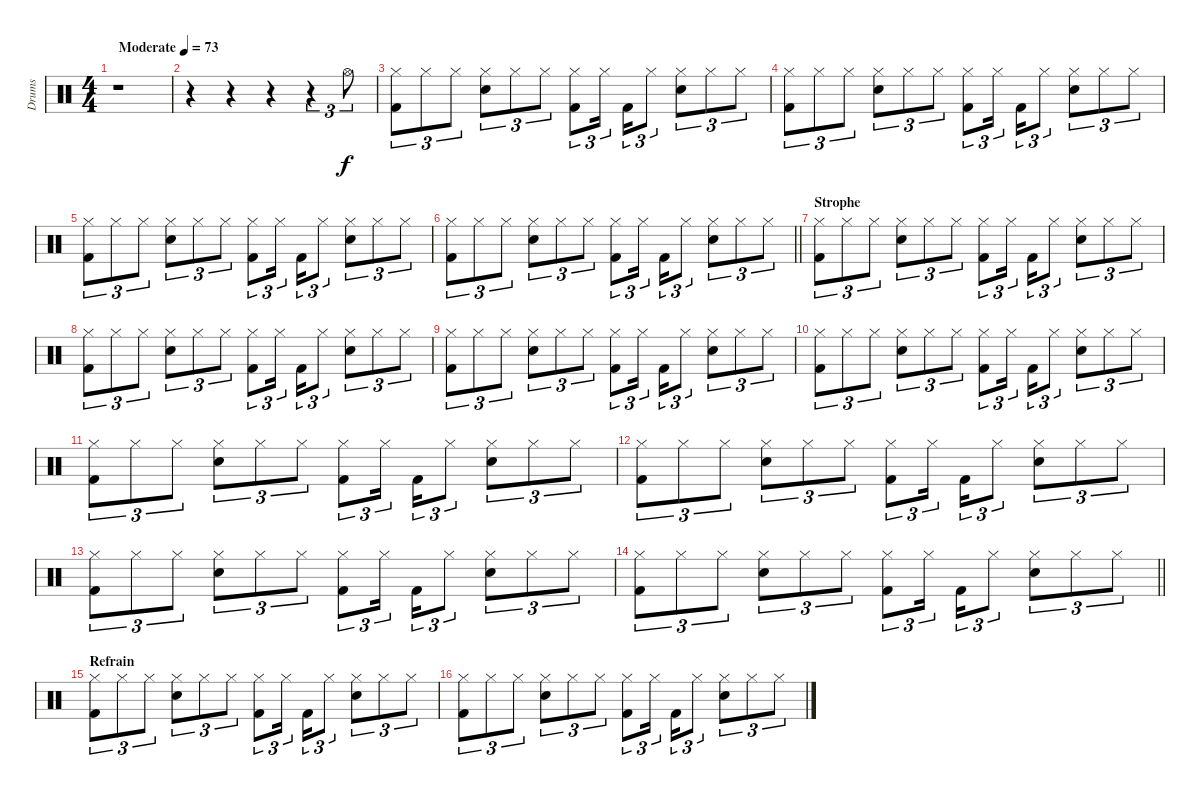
\track ("Drums" "Drums") {instrument percussion}
\staff {score}
\articulation defaults
\ts (4 4)
\tempo (73 "Moderate")
\clef neutral
\ks c
r.1{dy f} |
r.4 r.4 r.4 r.4{tu (3 2)} "Hi-Hat (open)".8{tu (3 2)} |
("Hi-Hat (closed)" "Kick (hit) 2").8{tu (3 2)} "Hi-Hat (closed)".8{tu (3 2)} "Hi-Hat (closed)".8{tu (3 2)} ("Hi-Hat (closed)" "Snare (hit) 2").8{tu (3 2)} "Hi-Hat (closed)".8{tu (3 2)} "Hi-Hat (closed)".8{tu (3 2)} ("Hi-Hat (closed)" "Kick (hit) 2").8{tu (3 2)} "Hi-Hat (closed)".16{tu (3 2) beam splitsecondary} "Kick (hit) 2".16{tu (3 2)} "Hi-Hat (closed)".8{tu (3 2)} ("Hi-Hat (closed)" "Snare (hit) 2").8{tu (3 2)} "Hi-Hat (closed)".8{tu (3 2)} "Hi-Hat (closed)".8{tu (3 2)} |
("Hi-Hat (closed)" "Kick (hit) 2").8{tu (3 2)} "Hi-Hat (closed)".8{tu (3 2)} "Hi-Hat (closed)".8{tu (3 2)} ("Hi-Hat (closed)" "Snare (hit) 2").8{tu (3 2)} "Hi-Hat (closed)".8{tu (3 2)} "Hi-Hat (closed)".8{tu (3 2)} ("Hi-Hat (closed)" "Kick (hit) 2").8{tu (3 2)} "Hi-Hat (closed)".16{tu (3 2) beam splitsecondary} "Kick (hit) 2".16{tu (3 2)} "Hi-Hat (closed)".8{tu (3 2)} ("Hi-Hat (closed)" "Snare (hit) 2").8{tu (3 2)} "Hi-Hat (closed)".8{tu (3 2)} "Hi-Hat (closed)".8{tu (3 2)} |
("Hi-Hat (closed)" "Kick (hit) 2").8{tu (3 2)} "Hi-Hat (closed)".8{tu (3 2)} "Hi-Hat (closed)".8{tu (3 2)} ("Hi-Hat (closed)" "Snare (hit) 2").8{tu (3 2)} "Hi-Hat (closed)".8{tu (3 2)} "Hi-Hat (closed)".8{tu (3 2)} ("Hi-Hat (closed)" "Kick (hit) 2").8{tu (3 2)} "Hi-Hat (closed)".16{tu (3 2) beam splitsecondary} "Kick (hit) 2".16{tu (3 2)} "Hi-Hat (closed)".8{tu (3 2)} ("Hi-Hat (closed)" "Snare (hit) 2").8{tu (3 2)} "Hi-Hat (closed)".8{tu (3 2)} "Hi-Hat (closed)".8{tu (3 2)} |
\barLineRight lightlight
("Hi-Hat (closed)" "Kick (hit) 2").8{tu (3 2)} "Hi-Hat (closed)".8{tu (3 2)} "Hi-Hat (closed)".8{tu (3 2)} ("Hi-Hat (closed)" "Snare (hit) 2").8{tu (3 2)} "Hi-Hat (closed)".8{tu (3 2)} "Hi-Hat (closed)".8{tu (3 2)} ("Hi-Hat (closed)" "Kick (hit) 2").8{tu (3 2)} "Hi-Hat (closed)".16{tu (3 2) beam splitsecondary} "Kick (hit) 2".16{tu (3 2)} "Hi-Hat (closed)".8{tu (3 2)} ("Hi-Hat (closed)" "Snare (hit) 2").8{tu (3 2)} "Hi-Hat (closed)".8{tu (3 2)} "Hi-Hat (closed)".8{tu (3 2)} |
\section ("" "Strophe")
("Hi-Hat (closed)" "Kick (hit) 2").8{tu (3 2)} "Hi-Hat (closed)".8{tu (3 2)} "Hi-Hat (closed)".8{tu (3 2)} ("Hi-Hat (closed)" "Snare (hit) 2").8{tu (3 2)} "Hi-Hat (closed)".8{tu (3 2)} "Hi-Hat (closed)".8{tu (3 2)} ("Hi-Hat (closed)" "Kick (hit) 2").8{tu (3 2)} "Hi-Hat (closed)".16{tu (3 2) beam splitsecondary} "Kick (hit) 2".16{tu (3 2)} "Hi-Hat (closed)".8{tu (3 2)} ("Hi-Hat (closed)" "Snare (hit) 2").8{tu (3 2)} "Hi-Hat (closed)".8{tu (3 2)} "Hi-Hat (closed)".8{tu (3 2)} |
("Hi-Hat (closed)" "Kick (hit) 2").8{tu (3 2)} "Hi-Hat (closed)".8{tu (3 2)} "Hi-Hat (closed)".8{tu (3 2)} ("Hi-Hat (closed)" "Snare (hit) 2").8{tu (3 2)} "Hi-Hat (closed)".8{tu (3 2)} "Hi-Hat (closed)".8{tu (3 2)} ("Hi-Hat (closed)" "Kick (hit) 2").8{tu (3 2)} "Hi-Hat (closed)".16{tu (3 2) beam splitsecondary} "Kick (hit) 2".16{tu (3 2)} "Hi-Hat (closed)".8{tu (3 2)} ("Hi-Hat (closed)" "Snare (hit) 2").8{tu (3 2)} "Hi-Hat (closed)".8{tu (3 2)} "Hi-Hat (closed)".8{tu (3 2)} |
("Hi-Hat (closed)" "Kick (hit) 2").8{tu (3 2)} "Hi-Hat (closed)".8{tu (3 2)} "Hi-Hat (closed)".8{tu (3 2)} ("Hi-Hat (closed)" "Snare (hit) 2").8{tu (3 2)} "Hi-Hat (closed)".8{tu (3 2)} "Hi-Hat (closed)".8{tu (3 2)} ("Hi-Hat (closed)" "Kick (hit) 2").8{tu (3 2)} "Hi-Hat (closed)".16{tu (3 2) beam splitsecondary} "Kick (hit) 2".16{tu (3 2)} "Hi-Hat (closed)".8{tu (3 2)} ("Hi-Hat (closed)" "Snare (hit) 2").8{tu (3 2)} "Hi-Hat (closed)".8{tu (3 2)} "Hi-Hat (closed)".8{tu (3 2)} |
("Hi-Hat (closed)" "Kick (hit) 2").8{tu (3 2)} "Hi-Hat (closed)".8{tu (3 2)} "Hi-Hat (closed)".8{tu (3 2)} ("Hi-Hat (closed)" "Snare (hit) 2").8{tu (3 2)} "Hi-Hat (closed)".8{tu (3 2)} "Hi-Hat (closed)".8{tu (3 2)} ("Hi-Hat (closed)" "Kick (hit) 2").8{tu (3 2)} "Hi-Hat (closed)".16{tu (3 2) beam splitsecondary} "Kick (hit) 2".16{tu (3 2)} "Hi-Hat (closed)".8{tu (3 2)} ("Hi-Hat (closed)" "Snare (hit) 2").8{tu (3 2)} "Hi-Hat (closed)".8{tu (3 2)} "Hi-Hat (closed)".8{tu (3 2)} |
("Hi-Hat (closed)" "Kick (hit) 2").8{tu (3 2)} "Hi-Hat (closed)".8{tu (3 2)} "Hi-Hat (closed)".8{tu (3 2)} ("Hi-Hat (closed)" "Snare (hit) 2").8{tu (3 2)} "Hi-Hat (closed)".8{tu (3 2)} "Hi-Hat (closed)".8{tu (3 2)} ("Hi-Hat (closed)" "Kick (hit) 2").8{tu (3 2)} "Hi-Hat (closed)".16{tu (3 2) beam splitsecondary} "Kick (hit) 2".16{tu (3 2)} "Hi-Hat (closed)".8{tu (3 2)} ("Hi-Hat (closed)" "Snare (hit) 2").8{tu (3 2)} "Hi-Hat (closed)".8{tu (3 2)} "Hi-Hat (closed)".8{tu (3 2)} |
("Hi-Hat (closed)" "Kick (hit) 2").8{tu (3 2)} "Hi-Hat (closed)".8{tu (3 2)} "Hi-Hat (closed)".8{tu (3 2)} ("Hi-Hat (closed)" "Snare (hit) 2").8{tu (3 2)} "Hi-Hat (closed)".8{tu (3 2)} "Hi-Hat (closed)".8{tu (3 2)} ("Hi-Hat (closed)" "Kick (hit) 2").8{tu (3 2)} "Hi-Hat (closed)".16{tu (3 2) beam splitsecondary} "Kick (hit) 2".16{tu (3 2)} "Hi-Hat (closed)".8{tu (3 2)} ("Hi-Hat (closed)" "Snare (hit) 2").8{tu (3 2)} "Hi-Hat (closed)".8{tu (3 2)} "Hi-Hat (closed)".8{tu (3 2)} |
("Hi-Hat (closed)" "Kick (hit) 2").8{tu (3 2)} "Hi-Hat (closed)".8{tu (3 2)} "Hi-Hat (closed)".8{tu (3 2)} ("Hi-Hat (closed)" "Snare (hit) 2").8{tu (3 2)} "Hi-Hat (closed)".8{tu (3 2)} "Hi-Hat (closed)".8{tu (3 2)} ("Hi-Hat (closed)" "Kick (hit) 2").8{tu (3 2)} "Hi-Hat (closed)".16{tu (3 2) beam splitsecondary} "Kick (hit) 2".16{tu (3 2)} "Hi-Hat (closed)".8{tu (3 2)} ("Hi-Hat (closed)" "Snare (hit) 2").8{tu (3 2)} "Hi-Hat (closed)".8{tu (3 2)} "Hi-Hat (closed)".8{tu (3 2)} |
\barLineRight lightlight
("Hi-Hat (closed)" "Kick (hit) 2").8{tu (3 2)} "Hi-Hat (closed)".8{tu (3 2)} "Hi-Hat (closed)".8{tu (3 2)} ("Hi-Hat (closed)" "Snare (hit) 2").8{tu (3 2)} "Hi-Hat (closed)".8{tu (3 2)} "Hi-Hat (closed)".8{tu (3 2)} ("Hi-Hat (closed)" "Kick (hit) 2").8{tu (3 2)} "Hi-Hat (closed)".16{tu (3 2) beam splitsecondary} "Kick (hit) 2".16{tu (3 2)} "Hi-Hat (closed)".8{tu (3 2)} ("Hi-Hat (closed)" "Snare (hit) 2").8{tu (3 2)} "Hi-Hat (closed)".8{tu (3 2)} "Hi-Hat (closed)".8{tu (3 2)} |
\section ("" "Refrain")
("Hi-Hat (closed)" "Kick (hit) 2").8{tu (3 2)} "Hi-Hat (closed)".8{tu (3 2)} "Hi-Hat (closed)".8{tu (3 2)} ("Hi-Hat (closed)" "Snare (hit) 2").8{tu (3 2)} "Hi-Hat (closed)".8{tu (3 2)} "Hi-Hat (closed)".8{tu (3 2)} ("Hi-Hat (closed)" "Kick (hit) 2").8{tu (3 2)} "Hi-Hat (closed)".16{tu (3 2) beam splitsecondary} "Kick (hit) 2".16{tu (3 2)} "Hi-Hat (closed)".8{tu (3 2)} ("Hi-Hat (closed)" "Snare (hit) 2").8{tu (3 2)} "Hi-Hat (closed)".8{tu (3 2)} "Hi-Hat (closed)".8{tu (3 2)} |
("Hi-Hat (closed)" "Kick (hit) 2").8{tu (3 2)} "Hi-Hat (closed)".8{tu (3 2)} "Hi-Hat (closed)".8{tu (3 2)} ("Hi-Hat (closed)" "Snare (hit) 2").8{tu (3 2)} "Hi-Hat (closed)".8{tu (3 2)} "Hi-Hat (closed)".8{tu (3 2)} ("Hi-Hat (closed)" "Kick (hit) 2").8{tu (3 2)} "Hi-Hat (closed)".16{tu (3 2) beam splitsecondary} "Kick (hit) 2".16{tu (3 2)} "Hi-Hat (closed)".8{tu (3 2)} ("Hi-Hat (closed)" "Snare (hit) 2").8{tu (3 2)} "Hi-Hat (closed)".8{tu (3 2)} "Hi-Hat (closed)".8{tu (3 2)}
